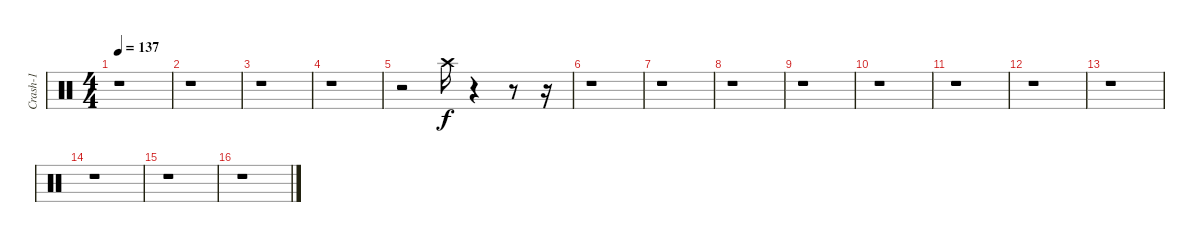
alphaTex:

\track ("Crash-1" "Crash-1") {instrument percussion}
\staff {score}
\articulation defaults
\ts (4 4)
\tempo 137
\clef neutral
\ks c
r.1{dy f} |
r.1 |
r.1 |
r.1 |
r.2 "Crash high (hit)".16 r.4 r.8 r.16 |
r.1 |
r.1 |
r.1 |
r.1 |
r.1 |
r.1 |
r.1 |
r.1 |
r.1 |
r.1 |
r.1
